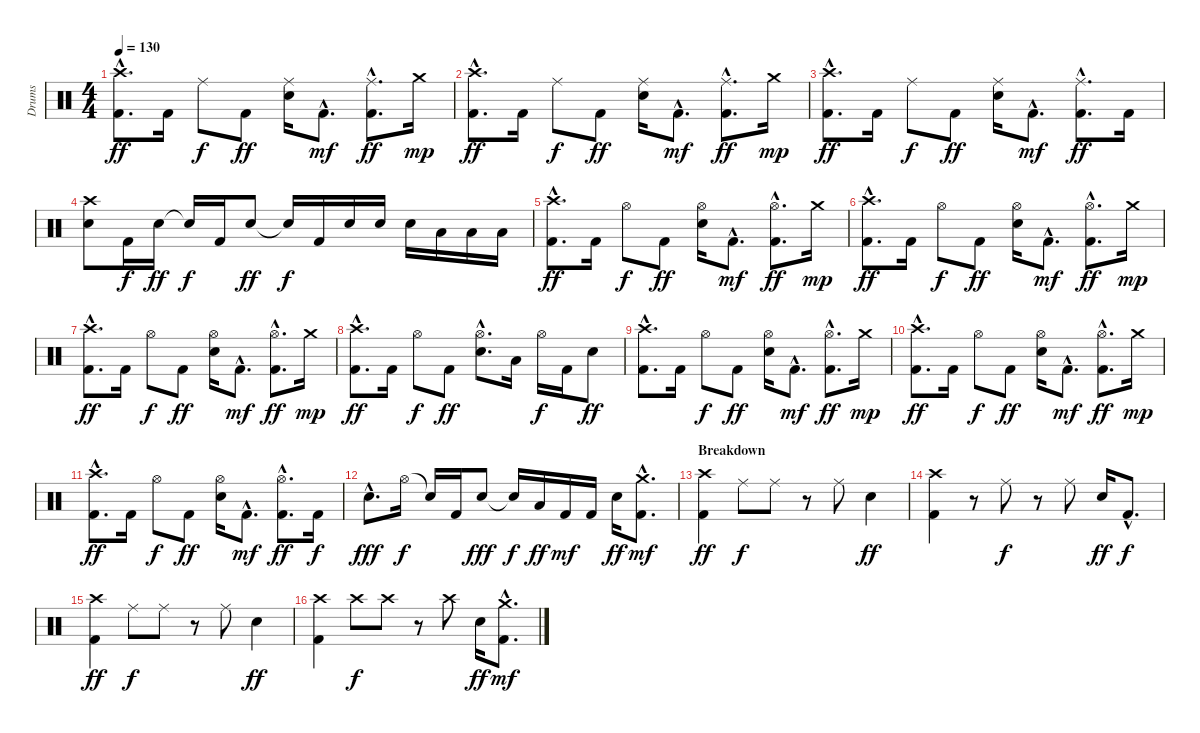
\track ("Drums" "Drums") {instrument percussion}
\staff {score}
\articulation defaults
\ts (4 4)
\tempo 130
\clef neutral
\ks c
("Crash high (hit)"{hac} "Kick (hit) 2"{hac}).8{d dy ff} "Kick (hit) 2".16 "Ride (middle)".8{dy f} "Kick (hit) 2".8{dy ff} ("Ride (middle)" "Electric Snare (hit)").16 "Kick (hit) 2"{hac}.8{d dy mf} ("Ride (middle)"{hac} "Kick (hit) 2"{hac}).8{d dy ff} "Crash medium (hit)".16{dy mp} |
("Crash high (hit)"{hac} "Kick (hit) 2"{hac}).8{d dy ff} "Kick (hit) 2".16 "Ride (middle)".8{dy f} "Kick (hit) 2".8{dy ff} ("Ride (middle)" "Electric Snare (hit)").16 "Kick (hit) 2"{hac}.8{d dy mf} ("Ride (middle)"{hac} "Kick (hit) 2"{hac}).8{d dy ff} "Crash medium (hit)".16{dy mp} |
("Crash high (hit)"{hac} "Kick (hit) 2"{hac}).8{d dy ff} "Kick (hit) 2".16 "Ride (middle)".8{dy f} "Kick (hit) 2".8{dy ff} ("Ride (middle)" "Electric Snare (hit)").16 "Kick (hit) 2"{hac}.8{d dy mf} ("Ride (middle)"{hac} "Kick (hit) 2"{hac}).8{d dy ff} "Kick (hit) 2".16 |
("Crash high (hit)" "Electric Snare (hit)").8 "Kick (hit) 2".16{dy f} "Electric Snare (hit)".16{dy ff} "Snare (hit)"{t}.16{dy f} "Kick (hit) 2".16 "Electric Snare (hit)".8{dy ff} "Snare (hit)"{t}.16{dy f} "Kick (hit) 2".16 "Electric Snare (hit)".16 "Electric Snare (hit)".16 "Electric Snare (hit)".16 "Low Tom (hit)".16 "Low Tom (hit)".16 "Low Tom (hit)".16 |
("Crash high (hit)"{hac} "Kick (hit) 2"{hac}).8{d dy ff} "Kick (hit) 2".16 "Hi-Hat (open)".8{dy f} "Kick (hit) 2".8{dy ff} ("Hi-Hat (open)" "Electric Snare (hit)").16 "Kick (hit) 2"{hac}.8{d dy mf} ("Hi-Hat (open)"{hac} "Kick (hit) 2"{hac}).8{d dy ff} "Crash medium (hit)".16{dy mp} |
("Crash high (hit)"{hac} "Kick (hit) 2"{hac}).8{d dy ff} "Kick (hit) 2".16 "Hi-Hat (open)".8{dy f} "Kick (hit) 2".8{dy ff} ("Hi-Hat (open)" "Electric Snare (hit)").16 "Kick (hit) 2"{hac}.8{d dy mf} ("Hi-Hat (open)"{hac} "Kick (hit) 2"{hac}).8{d dy ff} "Crash medium (hit)".16{dy mp} |
("Crash high (hit)"{hac} "Kick (hit) 2"{hac}).8{d dy ff} "Kick (hit) 2".16 "Hi-Hat (open)".8{dy f} "Kick (hit) 2".8{dy ff} ("Hi-Hat (open)" "Electric Snare (hit)").16 "Kick (hit) 2"{hac}.8{d dy mf} ("Hi-Hat (open)"{hac} "Kick (hit) 2"{hac}).8{d dy ff} "Crash medium (hit)".16{dy mp} |
("Crash high (hit)"{hac} "Kick (hit) 2"{hac}).8{d dy ff} "Kick (hit) 2".16 "Hi-Hat (open)".8{dy f} "Kick (hit) 2".8{dy ff} ("Hi-Hat (open)"{hac} "Electric Snare (hit)"{hac}).8{d} "Low Tom (hit)".16 "Hi-Hat (open)".16{dy f} "Kick (hit) 2".16 "Electric Snare (hit)".8{dy ff} |
("Crash high (hit)"{hac} "Kick (hit) 2"{hac}).8{d} "Kick (hit) 2".16 "Hi-Hat (open)".8{dy f} "Kick (hit) 2".8{dy ff} ("Hi-Hat (open)" "Electric Snare (hit)").16 "Kick (hit) 2"{hac}.8{d dy mf} ("Hi-Hat (open)"{hac} "Kick (hit) 2"{hac}).8{d dy ff} "Crash medium (hit)".16{dy mp} |
("Crash high (hit)"{hac} "Kick (hit) 2"{hac}).8{d dy ff} "Kick (hit) 2".16 "Hi-Hat (open)".8{dy f} "Kick (hit) 2".8{dy ff} ("Hi-Hat (open)" "Electric Snare (hit)").16 "Kick (hit) 2"{hac}.8{d dy mf} ("Hi-Hat (open)"{hac} "Kick (hit) 2"{hac}).8{d dy ff} "Crash medium (hit)".16{dy mp} |
("Crash high (hit)"{hac} "Kick (hit) 2"{hac}).8{d dy ff} "Kick (hit) 2".16 "Hi-Hat (open)".8{dy f} "Kick (hit) 2".8{dy ff} ("Hi-Hat (open)" "Electric Snare (hit)").16 "Kick (hit) 2"{hac}.8{d dy mf} ("Hi-Hat (open)"{hac} "Kick (hit) 2"{hac}).8{d dy ff} "Kick (hit) 2".16{dy f} |
"Electric Snare (hit)"{hac}.8{d dy fff} "Hi-Hat (open)".16{dy f} "Snare (hit)"{t}.16 "Kick (hit) 2".16 "Electric Snare (hit)".8{dy fff} "Snare (hit)"{t}.16{dy f} "Low Tom (hit)".16{dy ff} "Kick (hit) 2".16{dy mf} "Kick (hit) 2".16 "Electric Snare (hit)".16{dy ff} ("Crash medium (hit)"{hac} "Kick (hit) 2"{hac}).8{d dy mf} |
\section ("" "Breakdown")
("Crash high (hit)" "Kick (hit) 2").4{dy ff} "Ride (middle)".8{dy f} "Ride (middle)".8 r.8 "Ride (middle)".8 "Electric Snare (hit)".4{dy ff} |
("Crash high (hit)" "Kick (hit) 2").4 r.8 "Ride (middle)".8{dy f} r.8 "Ride (middle)".8 "Electric Snare (hit)".16{dy ff} "Kick (hit) 2"{hac}.8{d dy f} |
("Crash high (hit)" "Kick (hit) 2").4{dy ff} "Ride (middle)".8{dy f} "Ride (middle)".8 r.8 "Ride (middle)".8 "Electric Snare (hit)".4{dy ff} |
("Crash high (hit)" "Kick (hit) 2").4 "Crash high (hit)".8{dy f} "Crash high (hit)".8 r.8 "Crash high (hit)".8 "Electric Snare (hit)".16{dy ff} ("Crash medium (hit)"{hac} "Kick (hit) 2"{hac}).8{d dy mf}
